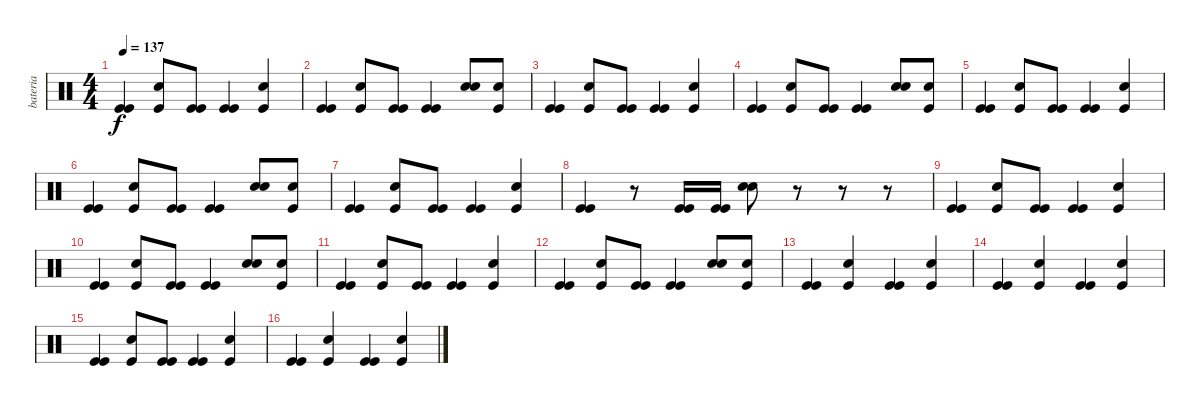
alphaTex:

\track ("bateria" "bateria") {instrument percussion}
\staff {score}
\articulation defaults
\ts (4 4)
\tempo 137
\clef neutral
\ks c
("Kick (hit)" "Kick (hit)").4{dy f} ("Snare (hit) 2" "Kick (hit)").8 ("Kick (hit)" "Kick (hit)").8 ("Kick (hit)" "Kick (hit)").4 ("Snare (hit) 2" "Kick (hit)").4 |
("Kick (hit)" "Kick (hit)").4 ("Snare (hit) 2" "Kick (hit)").8 ("Kick (hit)" "Kick (hit)").8 ("Kick (hit)" "Kick (hit)").4 ("Snare (hit) 2" "Snare (hit) 2").8 ("Snare (hit) 2" "Kick (hit)").8 |
("Kick (hit)" "Kick (hit)").4 ("Snare (hit) 2" "Kick (hit)").8 ("Kick (hit)" "Kick (hit)").8 ("Kick (hit)" "Kick (hit)").4 ("Snare (hit) 2" "Kick (hit)").4 |
("Kick (hit)" "Kick (hit)").4 ("Snare (hit) 2" "Kick (hit)").8 ("Kick (hit)" "Kick (hit)").8 ("Kick (hit)" "Kick (hit)").4 ("Snare (hit) 2" "Snare (hit) 2").8 ("Snare (hit) 2" "Kick (hit)").8 |
("Kick (hit)" "Kick (hit)").4 ("Snare (hit) 2" "Kick (hit)").8 ("Kick (hit)" "Kick (hit)").8 ("Kick (hit)" "Kick (hit)").4 ("Snare (hit) 2" "Kick (hit)").4 |
("Kick (hit)" "Kick (hit)").4 ("Snare (hit) 2" "Kick (hit)").8 ("Kick (hit)" "Kick (hit)").8 ("Kick (hit)" "Kick (hit)").4 ("Snare (hit) 2" "Snare (hit) 2").8 ("Snare (hit) 2" "Kick (hit)").8 |
("Kick (hit)" "Kick (hit)").4 ("Snare (hit) 2" "Kick (hit)").8 ("Kick (hit)" "Kick (hit)").8 ("Kick (hit)" "Kick (hit)").4 ("Snare (hit) 2" "Kick (hit)").4 |
("Kick (hit)" "Kick (hit)").4 r.8 ("Kick (hit)" "Kick (hit)").16 ("Kick (hit)" "Kick (hit)").16 ("Snare (hit) 2" "Snare (hit) 2").8 r.8 r.8 r.8 |
("Kick (hit)" "Kick (hit)").4 ("Snare (hit) 2" "Kick (hit)").8 ("Kick (hit)" "Kick (hit)").8 ("Kick (hit)" "Kick (hit)").4 ("Snare (hit) 2" "Kick (hit)").4 |
("Kick (hit)" "Kick (hit)").4 ("Snare (hit) 2" "Kick (hit)").8 ("Kick (hit)" "Kick (hit)").8 ("Kick (hit)" "Kick (hit)").4 ("Snare (hit) 2" "Snare (hit) 2").8 ("Snare (hit) 2" "Kick (hit)").8 |
("Kick (hit)" "Kick (hit)").4 ("Snare (hit) 2" "Kick (hit)").8 ("Kick (hit)" "Kick (hit)").8 ("Kick (hit)" "Kick (hit)").4 ("Snare (hit) 2" "Kick (hit)").4 |
("Kick (hit)" "Kick (hit)").4 ("Snare (hit) 2" "Kick (hit)").8 ("Kick (hit)" "Kick (hit)").8 ("Kick (hit)" "Kick (hit)").4 ("Snare (hit) 2" "Snare (hit) 2").8 ("Snare (hit) 2" "Kick (hit)").8 |
("Kick (hit)" "Kick (hit)").4 ("Kick (hit)" "Snare (hit) 2").4 ("Kick (hit)" "Kick (hit)").4 ("Snare (hit) 2" "Kick (hit)").4 |
("Kick (hit)" "Kick (hit)").4 ("Kick (hit)" "Snare (hit) 2").4 ("Kick (hit)" "Kick (hit)").4 ("Snare (hit) 2" "Kick (hit)").4 |
("Kick (hit)" "Kick (hit)").4 ("Snare (hit) 2" "Kick (hit)").8 ("Kick (hit)" "Kick (hit)").8 ("Kick (hit)" "Kick (hit)").4 ("Snare (hit) 2" "Kick (hit)").4 |
("Kick (hit)" "Kick (hit)").4 ("Kick (hit)" "Snare (hit) 2").4 ("Kick (hit)" "Kick (hit)").4 ("Snare (hit) 2" "Kick (hit)").4
